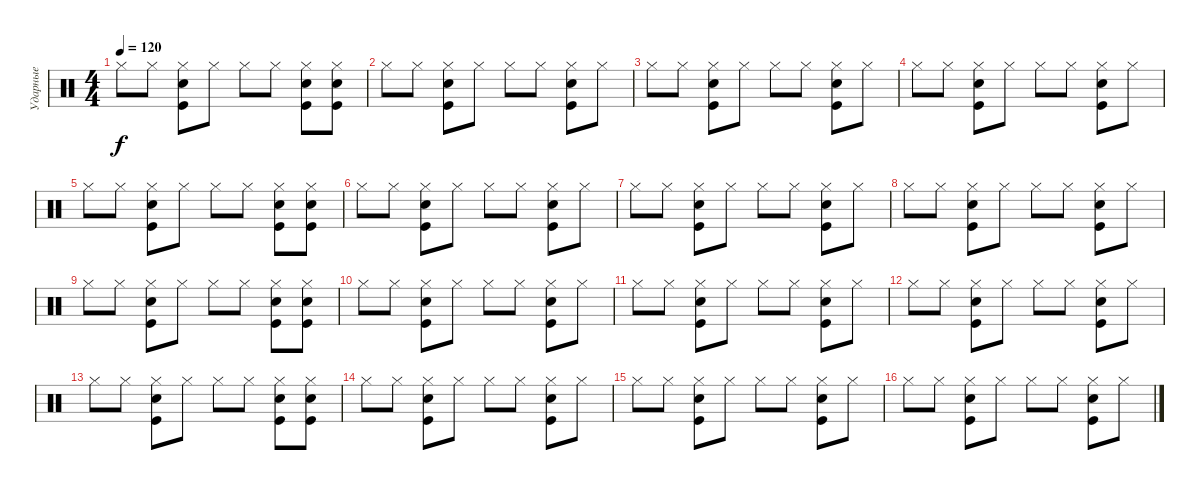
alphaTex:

\track ("Ударные" "Ударные") {instrument percussion}
\staff {score}
\articulation defaults
\ts (4 4)
\tempo 120
\clef neutral
\ks c "Hi-Hat (closed)".8{dy f} "Hi-Hat (closed)".8
("Hi-Hat (closed)" "Kick (hit)" "Snare (hit) 2").8 "Hi-Hat (closed)".8 "Hi-Hat (closed)".8 "Hi-Hat (closed)".8 ("Hi-Hat (closed)" "Kick (hit)" "Snare (hit) 2").8 ("Hi-Hat (closed)" "Kick (hit)" "Snare (hit) 2").8 |
"Hi-Hat (closed)".8 "Hi-Hat (closed)".8 ("Hi-Hat (closed)" "Kick (hit)" "Snare (hit) 2").8 "Hi-Hat (closed)".8 "Hi-Hat (closed)".8 "Hi-Hat (closed)".8 ("Hi-Hat (closed)" "Kick (hit)" "Snare (hit) 2").8 "Hi-Hat (closed)".8 |
"Hi-Hat (closed)".8 "Hi-Hat (closed)".8 ("Hi-Hat (closed)" "Kick (hit)" "Snare (hit) 2").8 "Hi-Hat (closed)".8 "Hi-Hat (closed)".8 "Hi-Hat (closed)".8 ("Hi-Hat (closed)" "Kick (hit)" "Snare (hit) 2").8 "Hi-Hat (closed)".8 |
"Hi-Hat (closed)".8 "Hi-Hat (closed)".8 ("Hi-Hat (closed)" "Kick (hit)" "Snare (hit) 2").8 "Hi-Hat (closed)".8 "Hi-Hat (closed)".8 "Hi-Hat (closed)".8 ("Hi-Hat (closed)" "Kick (hit)" "Snare (hit) 2").8 "Hi-Hat (closed)".8 |
"Hi-Hat (closed)".8 "Hi-Hat (closed)".8 ("Hi-Hat (closed)" "Kick (hit)" "Snare (hit) 2").8 "Hi-Hat (closed)".8 "Hi-Hat (closed)".8 "Hi-Hat (closed)".8 ("Hi-Hat (closed)" "Kick (hit)" "Snare (hit) 2").8 ("Hi-Hat (closed)" "Kick (hit)" "Snare (hit) 2").8 |
"Hi-Hat (closed)".8 "Hi-Hat (closed)".8 ("Hi-Hat (closed)" "Kick (hit)" "Snare (hit) 2").8 "Hi-Hat (closed)".8 "Hi-Hat (closed)".8 "Hi-Hat (closed)".8 ("Hi-Hat (closed)" "Kick (hit)" "Snare (hit) 2").8 "Hi-Hat (closed)".8 |
"Hi-Hat (closed)".8 "Hi-Hat (closed)".8 ("Hi-Hat (closed)" "Kick (hit)" "Snare (hit) 2").8 "Hi-Hat (closed)".8 "Hi-Hat (closed)".8 "Hi-Hat (closed)".8 ("Hi-Hat (closed)" "Kick (hit)" "Snare (hit) 2").8 "Hi-Hat (closed)".8 |
"Hi-Hat (closed)".8 "Hi-Hat (closed)".8 ("Hi-Hat (closed)" "Kick (hit)" "Snare (hit) 2").8 "Hi-Hat (closed)".8 "Hi-Hat (closed)".8 "Hi-Hat (closed)".8 ("Hi-Hat (closed)" "Kick (hit)" "Snare (hit) 2").8 "Hi-Hat (closed)".8 |
"Hi-Hat (closed)".8 "Hi-Hat (closed)".8 ("Hi-Hat (closed)" "Kick (hit)" "Snare (hit) 2").8 "Hi-Hat (closed)".8 "Hi-Hat (closed)".8 "Hi-Hat (closed)".8 ("Hi-Hat (closed)" "Kick (hit)" "Snare (hit) 2").8 ("Hi-Hat (closed)" "Kick (hit)" "Snare (hit) 2").8 |
"Hi-Hat (closed)".8 "Hi-Hat (closed)".8 ("Hi-Hat (closed)" "Kick (hit)" "Snare (hit) 2").8 "Hi-Hat (closed)".8 "Hi-Hat (closed)".8 "Hi-Hat (closed)".8 ("Hi-Hat (closed)" "Kick (hit)" "Snare (hit) 2").8 "Hi-Hat (closed)".8 |
"Hi-Hat (closed)".8 "Hi-Hat (closed)".8 ("Hi-Hat (closed)" "Kick (hit)" "Snare (hit) 2").8 "Hi-Hat (closed)".8 "Hi-Hat (closed)".8 "Hi-Hat (closed)".8 ("Hi-Hat (closed)" "Kick (hit)" "Snare (hit) 2").8 "Hi-Hat (closed)".8 |
"Hi-Hat (closed)".8 "Hi-Hat (closed)".8 ("Hi-Hat (closed)" "Kick (hit)" "Snare (hit) 2").8 "Hi-Hat (closed)".8 "Hi-Hat (closed)".8 "Hi-Hat (closed)".8 ("Hi-Hat (closed)" "Kick (hit)" "Snare (hit) 2").8 "Hi-Hat (closed)".8 |
"Hi-Hat (closed)".8 "Hi-Hat (closed)".8 ("Hi-Hat (closed)" "Kick (hit)" "Snare (hit) 2").8 "Hi-Hat (closed)".8 "Hi-Hat (closed)".8 "Hi-Hat (closed)".8 ("Hi-Hat (closed)" "Kick (hit)" "Snare (hit) 2").8 ("Hi-Hat (closed)" "Kick (hit)" "Snare (hit) 2").8 |
"Hi-Hat (closed)".8 "Hi-Hat (closed)".8 ("Hi-Hat (closed)" "Kick (hit)" "Snare (hit) 2").8 "Hi-Hat (closed)".8 "Hi-Hat (closed)".8 "Hi-Hat (closed)".8 ("Hi-Hat (closed)" "Kick (hit)" "Snare (hit) 2").8 "Hi-Hat (closed)".8 |
"Hi-Hat (closed)".8 "Hi-Hat (closed)".8 ("Hi-Hat (closed)" "Kick (hit)" "Snare (hit) 2").8 "Hi-Hat (closed)".8 "Hi-Hat (closed)".8 "Hi-Hat (closed)".8 ("Hi-Hat (closed)" "Kick (hit)" "Snare (hit) 2").8 "Hi-Hat (closed)".8 |
"Hi-Hat (closed)".8 "Hi-Hat (closed)".8 ("Hi-Hat (closed)" "Kick (hit)" "Snare (hit) 2").8 "Hi-Hat (closed)".8 "Hi-Hat (closed)".8 "Hi-Hat (closed)".8 ("Hi-Hat (closed)" "Kick (hit)" "Snare (hit) 2").8 "Hi-Hat (closed)".8
